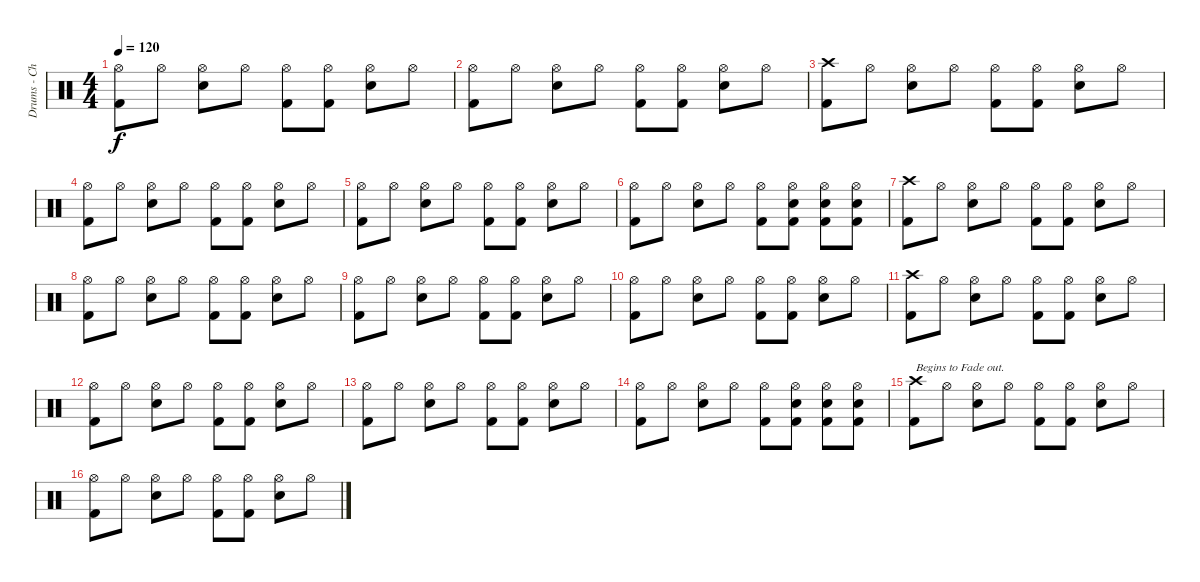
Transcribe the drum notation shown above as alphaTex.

\track ("Drums - Chris" "Drums - Ch") {instrument percussion}
\staff {score}
\articulation defaults
\ts (4 4)
\tempo 120
\clef neutral
\ks c
("Hi-Hat (open)" "Kick (hit) 2").8{dy f} "Hi-Hat (open)".8 ("Hi-Hat (open)" "Snare (hit) 2").8 "Hi-Hat (open)".8 ("Hi-Hat (open)" "Kick (hit) 2").8 ("Hi-Hat (open)" "Kick (hit) 2").8 ("Hi-Hat (open)" "Snare (hit) 2").8 "Hi-Hat (open)".8 |
("Hi-Hat (open)" "Kick (hit) 2").8 "Hi-Hat (open)".8 ("Hi-Hat (open)" "Snare (hit) 2").8 "Hi-Hat (open)".8 ("Hi-Hat (open)" "Kick (hit) 2").8 ("Hi-Hat (open)" "Kick (hit) 2").8 ("Hi-Hat (open)" "Snare (hit) 2").8 "Hi-Hat (open)".8 |
("Crash high (hit)" "Kick (hit) 2").8 "Hi-Hat (open)".8 ("Hi-Hat (open)" "Snare (hit) 2").8 "Hi-Hat (open)".8 ("Hi-Hat (open)" "Kick (hit) 2").8 ("Hi-Hat (open)" "Kick (hit) 2").8 ("Hi-Hat (open)" "Snare (hit) 2").8 "Hi-Hat (open)".8 |
("Hi-Hat (open)" "Kick (hit) 2").8 "Hi-Hat (open)".8 ("Hi-Hat (open)" "Snare (hit) 2").8 "Hi-Hat (open)".8 ("Hi-Hat (open)" "Kick (hit) 2").8 ("Hi-Hat (open)" "Kick (hit) 2").8 ("Hi-Hat (open)" "Snare (hit) 2").8 "Hi-Hat (open)".8 |
("Hi-Hat (open)" "Kick (hit) 2").8 "Hi-Hat (open)".8 ("Hi-Hat (open)" "Snare (hit) 2").8 "Hi-Hat (open)".8 ("Hi-Hat (open)" "Kick (hit) 2").8 ("Hi-Hat (open)" "Kick (hit) 2").8 ("Hi-Hat (open)" "Snare (hit) 2").8 "Hi-Hat (open)".8 |
("Hi-Hat (open)" "Kick (hit) 2").8 "Hi-Hat (open)".8 ("Hi-Hat (open)" "Snare (hit) 2").8 "Hi-Hat (open)".8 ("Hi-Hat (open)" "Kick (hit) 2").8 ("Hi-Hat (open)" "Snare (hit) 2" "Kick (hit) 2").8 ("Hi-Hat (open)" "Snare (hit) 2" "Kick (hit) 2").8 ("Hi-Hat (open)" "Snare (hit) 2" "Kick (hit) 2").8 |
("Crash high (hit)" "Kick (hit) 2").8 "Hi-Hat (open)".8 ("Hi-Hat (open)" "Snare (hit) 2").8 "Hi-Hat (open)".8 ("Hi-Hat (open)" "Kick (hit) 2").8 ("Hi-Hat (open)" "Kick (hit) 2").8 ("Hi-Hat (open)" "Snare (hit) 2").8 "Hi-Hat (open)".8 |
("Hi-Hat (open)" "Kick (hit) 2").8 "Hi-Hat (open)".8 ("Hi-Hat (open)" "Snare (hit) 2").8 "Hi-Hat (open)".8 ("Hi-Hat (open)" "Kick (hit) 2").8 ("Hi-Hat (open)" "Kick (hit) 2").8 ("Hi-Hat (open)" "Snare (hit) 2").8 "Hi-Hat (open)".8 |
("Hi-Hat (open)" "Kick (hit) 2").8 "Hi-Hat (open)".8 ("Hi-Hat (open)" "Snare (hit) 2").8 "Hi-Hat (open)".8 ("Hi-Hat (open)" "Kick (hit) 2").8 ("Hi-Hat (open)" "Kick (hit) 2").8 ("Hi-Hat (open)" "Snare (hit) 2").8 "Hi-Hat (open)".8 |
("Hi-Hat (open)" "Kick (hit) 2").8 "Hi-Hat (open)".8 ("Hi-Hat (open)" "Snare (hit) 2").8 "Hi-Hat (open)".8 ("Hi-Hat (open)" "Kick (hit) 2").8 ("Hi-Hat (open)" "Kick (hit) 2").8 ("Hi-Hat (open)" "Snare (hit) 2").8 "Hi-Hat (open)".8 |
("Crash high (hit)" "Kick (hit) 2").8 "Hi-Hat (open)".8 ("Hi-Hat (open)" "Snare (hit) 2").8 "Hi-Hat (open)".8 ("Hi-Hat (open)" "Kick (hit) 2").8 ("Hi-Hat (open)" "Kick (hit) 2").8 ("Hi-Hat (open)" "Snare (hit) 2").8 "Hi-Hat (open)".8 |
("Hi-Hat (open)" "Kick (hit) 2").8 "Hi-Hat (open)".8 ("Hi-Hat (open)" "Snare (hit) 2").8 "Hi-Hat (open)".8 ("Hi-Hat (open)" "Kick (hit) 2").8 ("Hi-Hat (open)" "Kick (hit) 2").8 ("Hi-Hat (open)" "Snare (hit) 2").8 "Hi-Hat (open)".8 |
("Hi-Hat (open)" "Kick (hit) 2").8 "Hi-Hat (open)".8 ("Hi-Hat (open)" "Snare (hit) 2").8 "Hi-Hat (open)".8 ("Hi-Hat (open)" "Kick (hit) 2").8 ("Hi-Hat (open)" "Kick (hit) 2").8 ("Hi-Hat (open)" "Snare (hit) 2").8 "Hi-Hat (open)".8 |
("Hi-Hat (open)" "Kick (hit) 2").8 "Hi-Hat (open)".8 ("Hi-Hat (open)" "Snare (hit) 2").8 "Hi-Hat (open)".8 ("Hi-Hat (open)" "Kick (hit) 2").8 ("Hi-Hat (open)" "Snare (hit) 2" "Kick (hit) 2").8 ("Hi-Hat (open)" "Snare (hit) 2" "Kick (hit) 2").8 ("Hi-Hat (open)" "Snare (hit) 2" "Kick (hit) 2").8 |
("Crash high (hit)" "Kick (hit) 2").8{txt "Begins to Fade out."} "Hi-Hat (open)".8 ("Hi-Hat (open)" "Snare (hit) 2").8 "Hi-Hat (open)".8 ("Hi-Hat (open)" "Kick (hit) 2").8 ("Hi-Hat (open)" "Kick (hit) 2").8 ("Hi-Hat (open)" "Snare (hit) 2").8 "Hi-Hat (open)".8 |
("Hi-Hat (open)" "Kick (hit) 2").8 "Hi-Hat (open)".8 ("Hi-Hat (open)" "Snare (hit) 2").8 "Hi-Hat (open)".8 ("Hi-Hat (open)" "Kick (hit) 2").8 ("Hi-Hat (open)" "Kick (hit) 2").8 ("Hi-Hat (open)" "Snare (hit) 2").8 "Hi-Hat (open)".8
